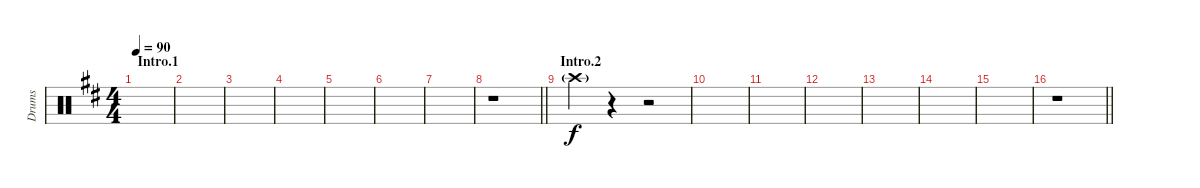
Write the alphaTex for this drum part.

\track ("Drums" "Drums") {instrument percussion}
\staff {score}
\articulation defaults
\ts (4 4)
\section ("" "Intro.1")
\tempo 90
\clef neutral
\ks d
|
|
|
|
|
|
|
\barLineRight lightlight
r.1{txt ""} |
\section ("" "Intro.2")
"Crash high (hit)"{g}.4 r.4 r.2 |
|
|
|
|
|
|
\barLineRight lightlight
r.1{txt ""}
